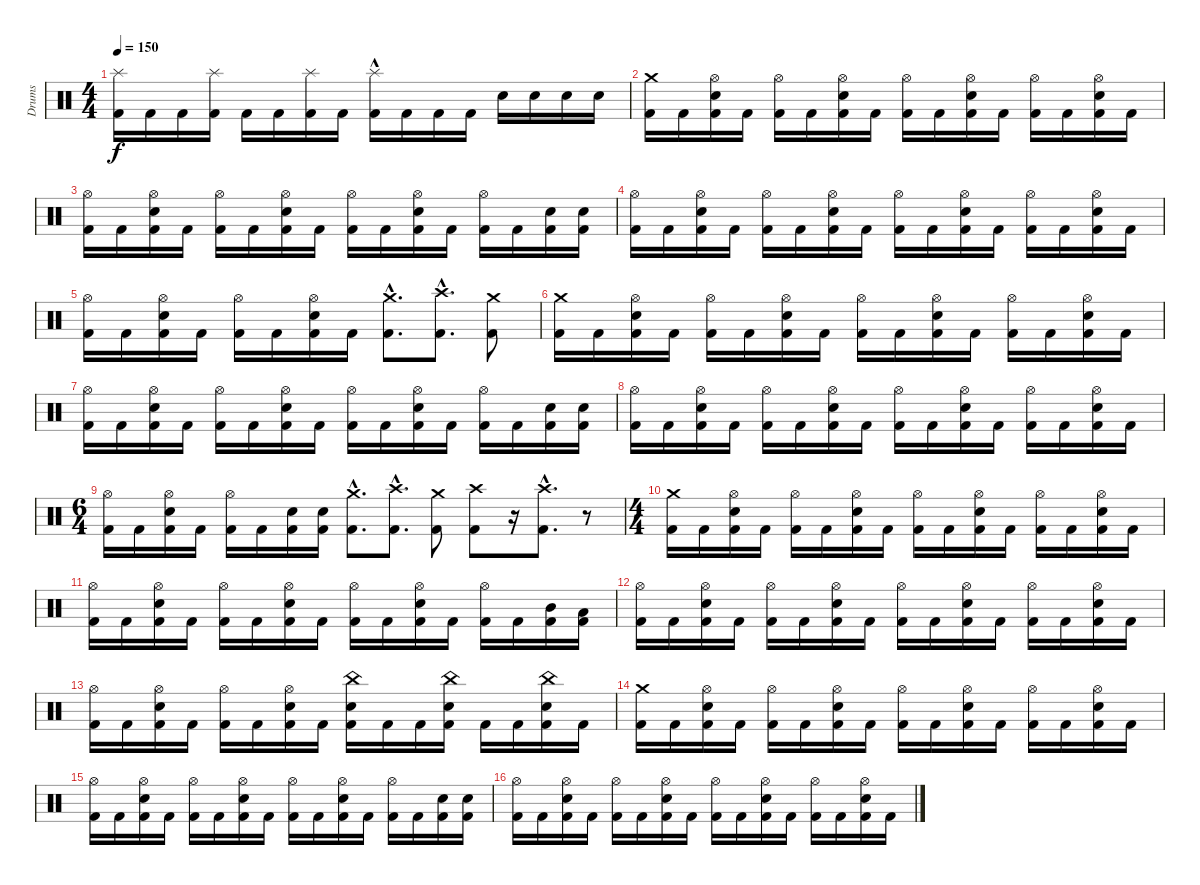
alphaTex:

\track ("Drums" "Drums") {instrument percussion}
\staff {score}
\articulation defaults
\ts (4 4)
\tempo 150
\clef neutral
\ks c
("Splash (hit)" "Kick (hit) 2").16{dy f} "Kick (hit) 2".16 "Kick (hit) 2".16 ("Splash (hit)" "Kick (hit) 2").16 "Kick (hit) 2".16 "Kick (hit) 2".16 ("Splash (hit)" "Kick (hit) 2").16 "Kick (hit) 2".16 ("Splash (hit)"{hac} "Kick (hit) 2").16 "Kick (hit) 2".16 "Kick (hit) 2".16 "Kick (hit) 2".16 "Electric Snare (hit)".16 "Electric Snare (hit)".16 "Electric Snare (hit)".16 "Electric Snare (hit)".16 |
("Crash medium (hit)" "Kick (hit) 2").16 "Kick (hit) 2".16 ("Hi-Hat (open)" "Electric Snare (hit)" "Kick (hit) 2").16 "Kick (hit) 2".16 ("Hi-Hat (open)" "Kick (hit) 2").16 "Kick (hit) 2".16 ("Hi-Hat (open)" "Electric Snare (hit)" "Kick (hit) 2").16 "Kick (hit) 2".16 ("Hi-Hat (open)" "Kick (hit) 2").16 "Kick (hit) 2".16 ("Hi-Hat (open)" "Electric Snare (hit)" "Kick (hit) 2").16 "Kick (hit) 2".16 ("Hi-Hat (open)" "Kick (hit) 2").16 "Kick (hit) 2".16 ("Hi-Hat (open)" "Electric Snare (hit)" "Kick (hit) 2").16 "Kick (hit) 2".16 |
("Hi-Hat (open)" "Kick (hit) 2").16 "Kick (hit) 2".16 ("Hi-Hat (open)" "Electric Snare (hit)" "Kick (hit) 2").16 "Kick (hit) 2".16 ("Hi-Hat (open)" "Kick (hit) 2").16 "Kick (hit) 2".16 ("Hi-Hat (open)" "Electric Snare (hit)" "Kick (hit) 2").16 "Kick (hit) 2".16 ("Hi-Hat (open)" "Kick (hit) 2").16 "Kick (hit) 2".16 ("Hi-Hat (open)" "Electric Snare (hit)" "Kick (hit) 2").16 "Kick (hit) 2".16 ("Hi-Hat (open)" "Kick (hit) 2").16 "Kick (hit) 2".16 ("Electric Snare (hit)" "Kick (hit) 2").16 ("Electric Snare (hit)" "Kick (hit) 2").16 |
("Hi-Hat (open)" "Kick (hit) 2").16 "Kick (hit) 2".16 ("Hi-Hat (open)" "Electric Snare (hit)" "Kick (hit) 2").16 "Kick (hit) 2".16 ("Hi-Hat (open)" "Kick (hit) 2").16 "Kick (hit) 2".16 ("Hi-Hat (open)" "Electric Snare (hit)" "Kick (hit) 2").16 "Kick (hit) 2".16 ("Hi-Hat (open)" "Kick (hit) 2").16 "Kick (hit) 2".16 ("Hi-Hat (open)" "Electric Snare (hit)" "Kick (hit) 2").16 "Kick (hit) 2".16 ("Hi-Hat (open)" "Kick (hit) 2").16 "Kick (hit) 2".16 ("Hi-Hat (open)" "Electric Snare (hit)" "Kick (hit) 2").16 "Kick (hit) 2".16 |
("Hi-Hat (open)" "Kick (hit) 2").16 "Kick (hit) 2".16 ("Hi-Hat (open)" "Electric Snare (hit)" "Kick (hit) 2").16 "Kick (hit) 2".16 ("Hi-Hat (open)" "Kick (hit) 2").16 "Kick (hit) 2".16 ("Hi-Hat (open)" "Electric Snare (hit)" "Kick (hit) 2").16 "Kick (hit) 2".16 ("Crash medium (hit)" "Kick (hit) 2"{hac}).8{d} ("Crash high (hit)" "Kick (hit) 2"{hac}).8{d} ("Crash medium (hit)" "Kick (hit) 2").8 |
("Crash medium (hit)" "Kick (hit) 2").16 "Kick (hit) 2".16 ("Hi-Hat (open)" "Electric Snare (hit)" "Kick (hit) 2").16 "Kick (hit) 2".16 ("Hi-Hat (open)" "Kick (hit) 2").16 "Kick (hit) 2".16 ("Hi-Hat (open)" "Electric Snare (hit)" "Kick (hit) 2").16 "Kick (hit) 2".16 ("Hi-Hat (open)" "Kick (hit) 2").16 "Kick (hit) 2".16 ("Hi-Hat (open)" "Electric Snare (hit)" "Kick (hit) 2").16 "Kick (hit) 2".16 ("Hi-Hat (open)" "Kick (hit) 2").16 "Kick (hit) 2".16 ("Hi-Hat (open)" "Electric Snare (hit)" "Kick (hit) 2").16 "Kick (hit) 2".16 |
("Hi-Hat (open)" "Kick (hit) 2").16 "Kick (hit) 2".16 ("Hi-Hat (open)" "Electric Snare (hit)" "Kick (hit) 2").16 "Kick (hit) 2".16 ("Hi-Hat (open)" "Kick (hit) 2").16 "Kick (hit) 2".16 ("Hi-Hat (open)" "Electric Snare (hit)" "Kick (hit) 2").16 "Kick (hit) 2".16 ("Hi-Hat (open)" "Kick (hit) 2").16 "Kick (hit) 2".16 ("Hi-Hat (open)" "Electric Snare (hit)" "Kick (hit) 2").16 "Kick (hit) 2".16 ("Hi-Hat (open)" "Kick (hit) 2").16 "Kick (hit) 2".16 ("Electric Snare (hit)" "Kick (hit) 2").16 ("Electric Snare (hit)" "Kick (hit) 2").16 |
("Hi-Hat (open)" "Kick (hit) 2").16 "Kick (hit) 2".16 ("Hi-Hat (open)" "Electric Snare (hit)" "Kick (hit) 2").16 "Kick (hit) 2".16 ("Hi-Hat (open)" "Kick (hit) 2").16 "Kick (hit) 2".16 ("Hi-Hat (open)" "Electric Snare (hit)" "Kick (hit) 2").16 "Kick (hit) 2".16 ("Hi-Hat (open)" "Kick (hit) 2").16 "Kick (hit) 2".16 ("Hi-Hat (open)" "Electric Snare (hit)" "Kick (hit) 2").16 "Kick (hit) 2".16 ("Hi-Hat (open)" "Kick (hit) 2").16 "Kick (hit) 2".16 ("Hi-Hat (open)" "Electric Snare (hit)" "Kick (hit) 2").16 "Kick (hit) 2".16 |
\ts (6 4)
("Hi-Hat (open)" "Kick (hit) 2").16 "Kick (hit) 2".16 ("Hi-Hat (open)" "Electric Snare (hit)" "Kick (hit) 2").16 "Kick (hit) 2".16 ("Hi-Hat (open)" "Kick (hit) 2").16 "Kick (hit) 2".16 ("Electric Snare (hit)" "Kick (hit) 2").16 ("Electric Snare (hit)" "Kick (hit) 2").16 ("Crash medium (hit)" "Kick (hit) 2"{hac}).8{d} ("Crash high (hit)" "Kick (hit) 2"{hac}).8{d} ("Crash medium (hit)" "Kick (hit) 2").8 ("Crash high (hit)" "Kick (hit) 2").8 r.16 ("Crash high (hit)" "Kick (hit) 2"{hac}).8{d} r.8 |
\ts (4 4)
("Crash medium (hit)" "Kick (hit) 2").16 "Kick (hit) 2".16 ("Hi-Hat (open)" "Electric Snare (hit)" "Kick (hit) 2").16 "Kick (hit) 2".16 ("Hi-Hat (open)" "Kick (hit) 2").16 "Kick (hit) 2".16 ("Hi-Hat (open)" "Electric Snare (hit)" "Kick (hit) 2").16 "Kick (hit) 2".16 ("Hi-Hat (open)" "Kick (hit) 2").16 "Kick (hit) 2".16 ("Hi-Hat (open)" "Electric Snare (hit)" "Kick (hit) 2").16 "Kick (hit) 2".16 ("Hi-Hat (open)" "Kick (hit) 2").16 "Kick (hit) 2".16 ("Hi-Hat (open)" "Electric Snare (hit)" "Kick (hit) 2").16 "Kick (hit) 2".16 |
("Hi-Hat (open)" "Kick (hit) 2").16 "Kick (hit) 2".16 ("Hi-Hat (open)" "Electric Snare (hit)" "Kick (hit) 2").16 "Kick (hit) 2".16 ("Hi-Hat (open)" "Kick (hit) 2").16 "Kick (hit) 2".16 ("Hi-Hat (open)" "Electric Snare (hit)" "Kick (hit) 2").16 "Kick (hit) 2".16 ("Hi-Hat (open)" "Kick (hit) 2").16 "Kick (hit) 2".16 ("Hi-Hat (open)" "Electric Snare (hit)" "Kick (hit) 2").16 "Kick (hit) 2".16 ("Hi-Hat (open)" "Kick (hit) 2").16 "Kick (hit) 2".16 ("Mid Tom (hit)" "Kick (hit) 2").16 ("Low Tom (hit)" "Kick (hit) 2").16 |
("Hi-Hat (open)" "Kick (hit) 2").16 "Kick (hit) 2".16 ("Hi-Hat (open)" "Electric Snare (hit)" "Kick (hit) 2").16 "Kick (hit) 2".16 ("Hi-Hat (open)" "Kick (hit) 2").16 "Kick (hit) 2".16 ("Hi-Hat (open)" "Electric Snare (hit)" "Kick (hit) 2").16 "Kick (hit) 2".16 ("Hi-Hat (open)" "Kick (hit) 2").16 "Kick (hit) 2".16 ("Hi-Hat (open)" "Electric Snare (hit)" "Kick (hit) 2").16 "Kick (hit) 2".16 ("Hi-Hat (open)" "Kick (hit) 2").16 "Kick (hit) 2".16 ("Hi-Hat (open)" "Electric Snare (hit)" "Kick (hit) 2").16 "Kick (hit) 2".16 |
("Hi-Hat (open)" "Kick (hit) 2").16 "Kick (hit) 2".16 ("Hi-Hat (open)" "Electric Snare (hit)" "Kick (hit) 2").16 "Kick (hit) 2".16 ("Hi-Hat (open)" "Kick (hit) 2").16 "Kick (hit) 2".16 ("Hi-Hat (open)" "Electric Snare (hit)" "Kick (hit) 2").16 "Kick (hit) 2".16 ("Electric Snare (hit)" "Kick (hit) 2" "China (hit)").16 "Kick (hit) 2".16 "Kick (hit) 2".16 ("Electric Snare (hit)" "Kick (hit) 2" "China (hit)").16 "Kick (hit) 2".16 "Kick (hit) 2".16 ("Electric Snare (hit)" "Kick (hit) 2" "China (hit)").16 "Kick (hit) 2".16 |
("Crash medium (hit)" "Kick (hit) 2").16 "Kick (hit) 2".16 ("Hi-Hat (open)" "Electric Snare (hit)" "Kick (hit) 2").16 "Kick (hit) 2".16 ("Hi-Hat (open)" "Kick (hit) 2").16 "Kick (hit) 2".16 ("Hi-Hat (open)" "Electric Snare (hit)" "Kick (hit) 2").16 "Kick (hit) 2".16 ("Hi-Hat (open)" "Kick (hit) 2").16 "Kick (hit) 2".16 ("Hi-Hat (open)" "Electric Snare (hit)" "Kick (hit) 2").16 "Kick (hit) 2".16 ("Hi-Hat (open)" "Kick (hit) 2").16 "Kick (hit) 2".16 ("Hi-Hat (open)" "Electric Snare (hit)" "Kick (hit) 2").16 "Kick (hit) 2".16 |
("Hi-Hat (open)" "Kick (hit) 2").16 "Kick (hit) 2".16 ("Hi-Hat (open)" "Electric Snare (hit)" "Kick (hit) 2").16 "Kick (hit) 2".16 ("Hi-Hat (open)" "Kick (hit) 2").16 "Kick (hit) 2".16 ("Hi-Hat (open)" "Electric Snare (hit)" "Kick (hit) 2").16 "Kick (hit) 2".16 ("Hi-Hat (open)" "Kick (hit) 2").16 "Kick (hit) 2".16 ("Hi-Hat (open)" "Electric Snare (hit)" "Kick (hit) 2").16 "Kick (hit) 2".16 ("Hi-Hat (open)" "Kick (hit) 2").16 "Kick (hit) 2".16 ("Electric Snare (hit)" "Kick (hit) 2").16 ("Electric Snare (hit)" "Kick (hit) 2").16 |
("Hi-Hat (open)" "Kick (hit) 2").16 "Kick (hit) 2".16 ("Hi-Hat (open)" "Electric Snare (hit)" "Kick (hit) 2").16 "Kick (hit) 2".16 ("Hi-Hat (open)" "Kick (hit) 2").16 "Kick (hit) 2".16 ("Hi-Hat (open)" "Electric Snare (hit)" "Kick (hit) 2").16 "Kick (hit) 2".16 ("Hi-Hat (open)" "Kick (hit) 2").16 "Kick (hit) 2".16 ("Hi-Hat (open)" "Electric Snare (hit)" "Kick (hit) 2").16 "Kick (hit) 2".16 ("Hi-Hat (open)" "Kick (hit) 2").16 "Kick (hit) 2".16 ("Hi-Hat (open)" "Electric Snare (hit)" "Kick (hit) 2").16 "Kick (hit) 2".16
